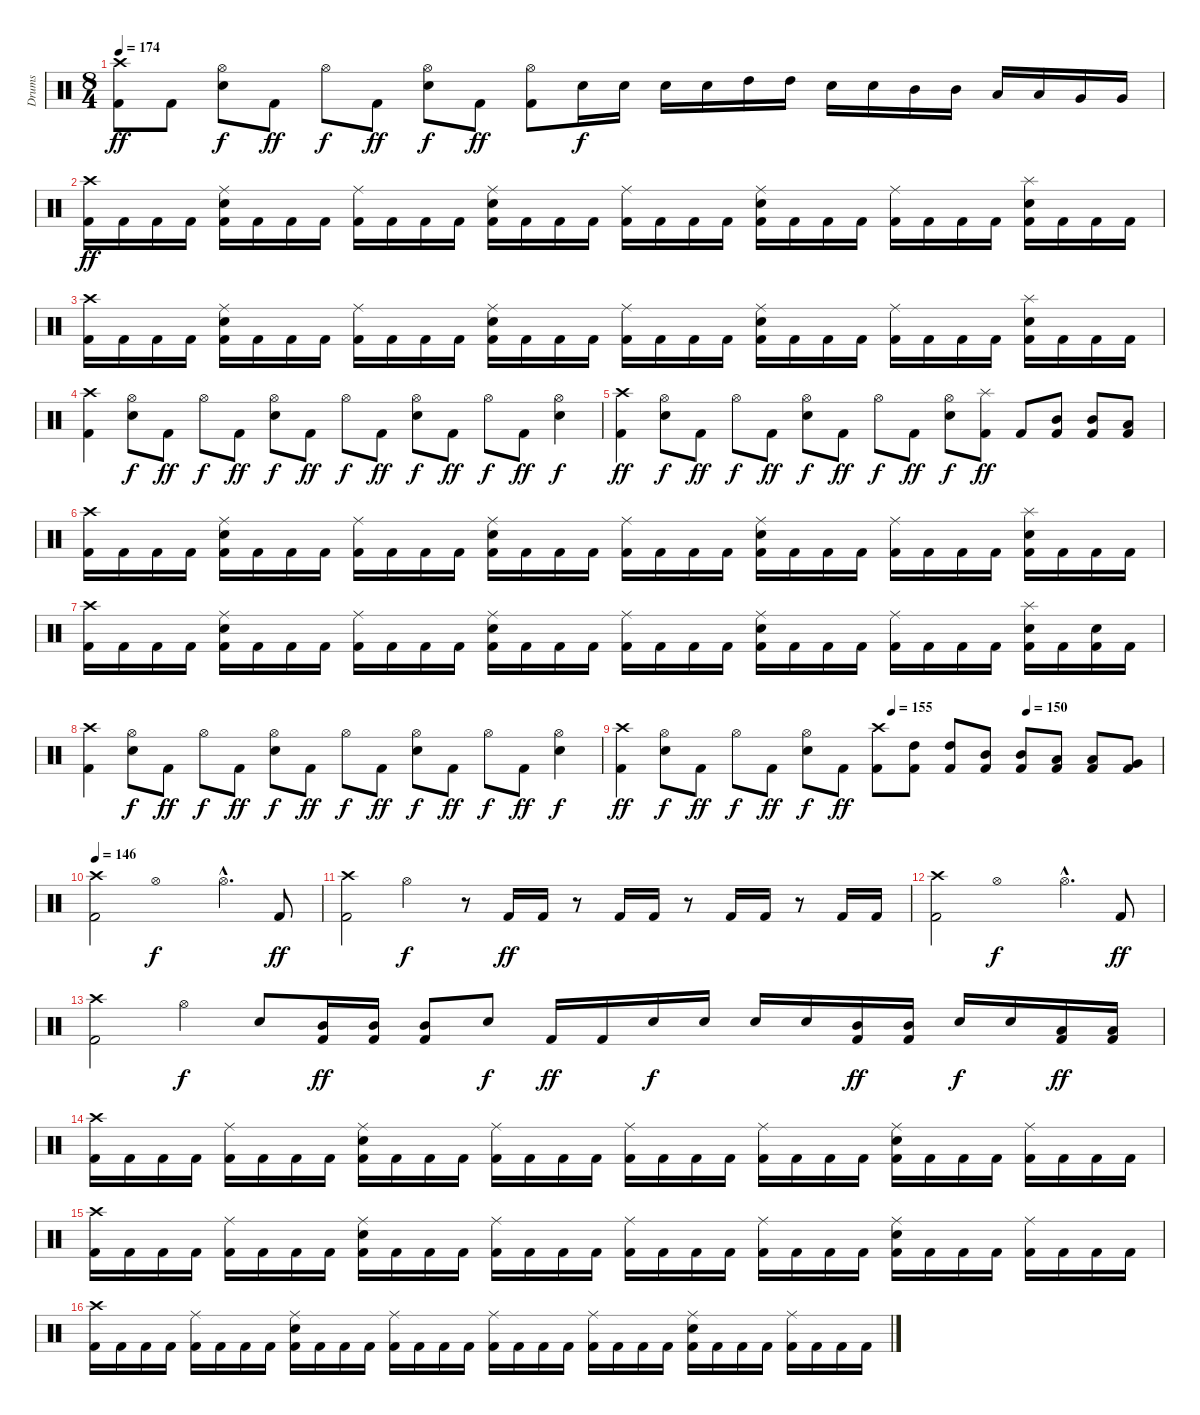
\track ("Drums" "Drums") {instrument percussion}
\staff {score}
\articulation defaults
\ts (8 4)
\tempo 174
\clef neutral
\ks c
("Crash high (hit)" "Kick (hit) 2").8{dy ff} "Kick (hit) 2".8 ("Hi-Hat (open)" "Snare (hit) 2").8{dy f} "Kick (hit) 2".8{dy ff} "Hi-Hat (open)".8{dy f} "Kick (hit) 2".8{dy ff} ("Hi-Hat (open)" "Snare (hit) 2").8{dy f} "Kick (hit) 2".8{dy ff} ("Hi-Hat (open)" "Kick (hit) 2").8 "Snare (hit) 2".16{dy f} "Snare (hit) 2".16 "Snare (hit) 2".16 "Snare (hit) 2".16 "High Tom (hit)".16 "High Tom (hit)".16 "Snare (hit) 2".16 "Snare (hit) 2".16 "Mid Tom (hit)".16 "Mid Tom (hit)".16 "Low Tom (hit)".16 "Low Tom (hit)".16 "Very Low Tom (hit)".16 "Very Low Tom (hit)".16 |
("Crash high (hit)" "Kick (hit) 2").16{dy ff} "Kick (hit) 2".16 "Kick (hit) 2".16 "Kick (hit) 2".16 ("Ride (middle)" "Snare (hit) 2" "Kick (hit) 2").16 "Kick (hit) 2".16 "Kick (hit) 2".16 "Kick (hit) 2".16 ("Ride (middle)" "Kick (hit) 2").16 "Kick (hit) 2".16 "Kick (hit) 2".16 "Kick (hit) 2".16 ("Ride (middle)" "Snare (hit) 2" "Kick (hit) 2").16 "Kick (hit) 2".16 "Kick (hit) 2".16 "Kick (hit) 2".16 ("Ride (middle)" "Kick (hit) 2").16 "Kick (hit) 2".16 "Kick (hit) 2".16 "Kick (hit) 2".16 ("Ride (middle)" "Snare (hit) 2" "Kick (hit) 2").16 "Kick (hit) 2".16 "Kick (hit) 2".16 "Kick (hit) 2".16 ("Ride (middle)" "Kick (hit) 2").16 "Kick (hit) 2".16 "Kick (hit) 2".16 "Kick (hit) 2".16 ("Splash (hit)" "Snare (hit) 2" "Kick (hit) 2").16 "Kick (hit) 2".16 "Kick (hit) 2".16 "Kick (hit) 2".16 |
("Crash high (hit)" "Kick (hit) 2").16 "Kick (hit) 2".16 "Kick (hit) 2".16 "Kick (hit) 2".16 ("Ride (middle)" "Snare (hit) 2" "Kick (hit) 2").16 "Kick (hit) 2".16 "Kick (hit) 2".16 "Kick (hit) 2".16 ("Ride (middle)" "Kick (hit) 2").16 "Kick (hit) 2".16 "Kick (hit) 2".16 "Kick (hit) 2".16 ("Ride (middle)" "Snare (hit) 2" "Kick (hit) 2").16 "Kick (hit) 2".16 "Kick (hit) 2".16 "Kick (hit) 2".16 ("Ride (middle)" "Kick (hit) 2").16 "Kick (hit) 2".16 "Kick (hit) 2".16 "Kick (hit) 2".16 ("Ride (middle)" "Snare (hit) 2" "Kick (hit) 2").16 "Kick (hit) 2".16 "Kick (hit) 2".16 "Kick (hit) 2".16 ("Ride (middle)" "Kick (hit) 2").16 "Kick (hit) 2".16 "Kick (hit) 2".16 "Kick (hit) 2".16 ("Splash (hit)" "Snare (hit) 2" "Kick (hit) 2").16 "Kick (hit) 2".16 "Kick (hit) 2".16 "Kick (hit) 2".16 |
("Crash high (hit)" "Kick (hit) 2").4 ("Hi-Hat (open)" "Snare (hit) 2").8{dy f} "Kick (hit) 2".8{dy ff} "Hi-Hat (open)".8{dy f} "Kick (hit) 2".8{dy ff} ("Hi-Hat (open)" "Snare (hit) 2").8{dy f} "Kick (hit) 2".8{dy ff} "Hi-Hat (open)".8{dy f} "Kick (hit) 2".8{dy ff} ("Hi-Hat (open)" "Snare (hit) 2").8{dy f} "Kick (hit) 2".8{dy ff} "Hi-Hat (open)".8{dy f} "Kick (hit) 2".8{dy ff} ("Hi-Hat (open)" "Snare (hit) 2").4{dy f} |
("Crash high (hit)" "Kick (hit) 2").4{dy ff} ("Hi-Hat (open)" "Snare (hit) 2").8{dy f} "Kick (hit) 2".8{dy ff} "Hi-Hat (open)".8{dy f} "Kick (hit) 2".8{dy ff} ("Hi-Hat (open)" "Snare (hit) 2").8{dy f} "Kick (hit) 2".8{dy ff} "Hi-Hat (open)".8{dy f} "Kick (hit) 2".8{dy ff} ("Hi-Hat (open)" "Snare (hit) 2").8{dy f} ("Splash (hit)" "Kick (hit) 2").8{dy ff} "Kick (hit) 2".8 ("Mid Tom (hit)" "Kick (hit) 2").8 ("Mid Tom (hit)" "Kick (hit) 2").8 ("Low Tom (hit)" "Kick (hit) 2").8 |
("Crash high (hit)" "Kick (hit) 2").16 "Kick (hit) 2".16 "Kick (hit) 2".16 "Kick (hit) 2".16 ("Ride (middle)" "Snare (hit) 2" "Kick (hit) 2").16 "Kick (hit) 2".16 "Kick (hit) 2".16 "Kick (hit) 2".16 ("Ride (middle)" "Kick (hit) 2").16 "Kick (hit) 2".16 "Kick (hit) 2".16 "Kick (hit) 2".16 ("Ride (middle)" "Snare (hit) 2" "Kick (hit) 2").16 "Kick (hit) 2".16 "Kick (hit) 2".16 "Kick (hit) 2".16 ("Ride (middle)" "Kick (hit) 2").16 "Kick (hit) 2".16 "Kick (hit) 2".16 "Kick (hit) 2".16 ("Ride (middle)" "Snare (hit) 2" "Kick (hit) 2").16 "Kick (hit) 2".16 "Kick (hit) 2".16 "Kick (hit) 2".16 ("Ride (middle)" "Kick (hit) 2").16 "Kick (hit) 2".16 "Kick (hit) 2".16 "Kick (hit) 2".16 ("Splash (hit)" "Snare (hit) 2" "Kick (hit) 2").16 "Kick (hit) 2".16 "Kick (hit) 2".16 "Kick (hit) 2".16 |
("Crash high (hit)" "Kick (hit) 2").16 "Kick (hit) 2".16 "Kick (hit) 2".16 "Kick (hit) 2".16 ("Ride (middle)" "Snare (hit) 2" "Kick (hit) 2").16 "Kick (hit) 2".16 "Kick (hit) 2".16 "Kick (hit) 2".16 ("Ride (middle)" "Kick (hit) 2").16 "Kick (hit) 2".16 "Kick (hit) 2".16 "Kick (hit) 2".16 ("Ride (middle)" "Snare (hit) 2" "Kick (hit) 2").16 "Kick (hit) 2".16 "Kick (hit) 2".16 "Kick (hit) 2".16 ("Ride (middle)" "Kick (hit) 2").16 "Kick (hit) 2".16 "Kick (hit) 2".16 "Kick (hit) 2".16 ("Ride (middle)" "Snare (hit) 2" "Kick (hit) 2").16 "Kick (hit) 2".16 "Kick (hit) 2".16 "Kick (hit) 2".16 ("Ride (middle)" "Kick (hit) 2").16 "Kick (hit) 2".16 "Kick (hit) 2".16 "Kick (hit) 2".16 ("Splash (hit)" "Snare (hit) 2" "Kick (hit) 2").16 "Kick (hit) 2".16 ("Snare (hit) 2" "Kick (hit) 2").16 "Kick (hit) 2".16 |
("Crash high (hit)" "Kick (hit) 2").4 ("Hi-Hat (open)" "Snare (hit) 2").8{dy f} "Kick (hit) 2".8{dy ff} "Hi-Hat (open)".8{dy f} "Kick (hit) 2".8{dy ff} ("Hi-Hat (open)" "Snare (hit) 2").8{dy f} "Kick (hit) 2".8{dy ff} "Hi-Hat (open)".8{dy f} "Kick (hit) 2".8{dy ff} ("Hi-Hat (open)" "Snare (hit) 2").8{dy f} "Kick (hit) 2".8{dy ff} "Hi-Hat (open)".8{dy f} "Kick (hit) 2".8{dy ff} ("Hi-Hat (open)" "Snare (hit) 2").4{dy f} |
\tempo (155 0.5)
\tempo (150 0.75)
("Crash high (hit)" "Kick (hit) 2").4{dy ff} ("Hi-Hat (open)" "Snare (hit) 2").8{dy f} "Kick (hit) 2".8{dy ff} "Hi-Hat (open)".8{dy f} "Kick (hit) 2".8{dy ff} ("Hi-Hat (open)" "Snare (hit) 2").8{dy f} "Kick (hit) 2".8{dy ff} ("Crash high (hit)" "Kick (hit) 2").8 ("High Tom (hit)" "Kick (hit) 2").8 ("High Tom (hit)" "Kick (hit) 2").8 ("Mid Tom (hit)" "Kick (hit) 2").8 ("Mid Tom (hit)" "Kick (hit) 2").8 ("Low Tom (hit)" "Kick (hit) 2").8 ("Low Tom (hit)" "Kick (hit) 2").8 ("Very Low Tom (hit)" "Kick (hit) 2").8 |
\tempo 146
("Crash high (hit)" "Kick (hit) 2").2 "Hi-Hat (open)".1{dy f} "Hi-Hat (open)"{hac}.4{d} "Kick (hit) 2".8{dy ff} |
("Crash high (hit)" "Kick (hit) 2").2 "Hi-Hat (open)".2{dy f} r.8 "Kick (hit) 2".16{dy ff} "Kick (hit) 2".16 r.8 "Kick (hit) 2".16 "Kick (hit) 2".16 r.8 "Kick (hit) 2".16 "Kick (hit) 2".16 r.8 "Kick (hit) 2".16 "Kick (hit) 2".16 |
("Crash high (hit)" "Kick (hit) 2").2 "Hi-Hat (open)".1{dy f} "Hi-Hat (open)"{hac}.4{d} "Kick (hit) 2".8{dy ff} |
("Crash high (hit)" "Kick (hit) 2").2 "Hi-Hat (open)".4{dy f} "Snare (hit) 2".8 ("Mid Tom (hit)" "Kick (hit) 2").16{dy ff} ("Mid Tom (hit)" "Kick (hit) 2").16 ("Mid Tom (hit)" "Kick (hit) 2").8 "Snare (hit) 2".8{dy f} "Kick (hit) 2".16{dy ff} "Kick (hit) 2".16 "Snare (hit) 2".16{dy f} "Snare (hit) 2".16 "Snare (hit) 2".16 "Snare (hit) 2".16 ("Mid Tom (hit)" "Kick (hit) 2").16{dy ff} ("Mid Tom (hit)" "Kick (hit) 2").16 "Snare (hit) 2".16{dy f} "Snare (hit) 2".16 ("Low Tom (hit)" "Kick (hit) 2").16{dy ff} ("Low Tom (hit)" "Kick (hit) 2").16 |
("Crash high (hit)" "Kick (hit) 2").16 "Kick (hit) 2".16 "Kick (hit) 2".16 "Kick (hit) 2".16 ("Ride (middle)" "Kick (hit) 2").16 "Kick (hit) 2".16 "Kick (hit) 2".16 "Kick (hit) 2".16 ("Ride (middle)" "Snare (hit) 2" "Kick (hit) 2").16 "Kick (hit) 2".16 "Kick (hit) 2".16 "Kick (hit) 2".16 ("Ride (middle)" "Kick (hit) 2").16 "Kick (hit) 2".16 "Kick (hit) 2".16 "Kick (hit) 2".16 ("Ride (middle)" "Kick (hit) 2").16 "Kick (hit) 2".16 "Kick (hit) 2".16 "Kick (hit) 2".16 ("Ride (middle)" "Kick (hit) 2").16 "Kick (hit) 2".16 "Kick (hit) 2".16 "Kick (hit) 2".16 ("Ride (middle)" "Snare (hit) 2" "Kick (hit) 2").16 "Kick (hit) 2".16 "Kick (hit) 2".16 "Kick (hit) 2".16 ("Ride (middle)" "Kick (hit) 2").16 "Kick (hit) 2".16 "Kick (hit) 2".16 "Kick (hit) 2".16 |
("Crash high (hit)" "Kick (hit) 2").16 "Kick (hit) 2".16 "Kick (hit) 2".16 "Kick (hit) 2".16 ("Ride (middle)" "Kick (hit) 2").16 "Kick (hit) 2".16 "Kick (hit) 2".16 "Kick (hit) 2".16 ("Ride (middle)" "Snare (hit) 2" "Kick (hit) 2").16 "Kick (hit) 2".16 "Kick (hit) 2".16 "Kick (hit) 2".16 ("Ride (middle)" "Kick (hit) 2").16 "Kick (hit) 2".16 "Kick (hit) 2".16 "Kick (hit) 2".16 ("Ride (middle)" "Kick (hit) 2").16 "Kick (hit) 2".16 "Kick (hit) 2".16 "Kick (hit) 2".16 ("Ride (middle)" "Kick (hit) 2").16 "Kick (hit) 2".16 "Kick (hit) 2".16 "Kick (hit) 2".16 ("Ride (middle)" "Snare (hit) 2" "Kick (hit) 2").16 "Kick (hit) 2".16 "Kick (hit) 2".16 "Kick (hit) 2".16 ("Ride (middle)" "Kick (hit) 2").16 "Kick (hit) 2".16 "Kick (hit) 2".16 "Kick (hit) 2".16 |
("Crash high (hit)" "Kick (hit) 2").16 "Kick (hit) 2".16 "Kick (hit) 2".16 "Kick (hit) 2".16 ("Ride (middle)" "Kick (hit) 2").16 "Kick (hit) 2".16 "Kick (hit) 2".16 "Kick (hit) 2".16 ("Ride (middle)" "Snare (hit) 2" "Kick (hit) 2").16 "Kick (hit) 2".16 "Kick (hit) 2".16 "Kick (hit) 2".16 ("Ride (middle)" "Kick (hit) 2").16 "Kick (hit) 2".16 "Kick (hit) 2".16 "Kick (hit) 2".16 ("Ride (middle)" "Kick (hit) 2").16 "Kick (hit) 2".16 "Kick (hit) 2".16 "Kick (hit) 2".16 ("Ride (middle)" "Kick (hit) 2").16 "Kick (hit) 2".16 "Kick (hit) 2".16 "Kick (hit) 2".16 ("Ride (middle)" "Snare (hit) 2" "Kick (hit) 2").16 "Kick (hit) 2".16 "Kick (hit) 2".16 "Kick (hit) 2".16 ("Ride (middle)" "Kick (hit) 2").16 "Kick (hit) 2".16 "Kick (hit) 2".16 "Kick (hit) 2".16
